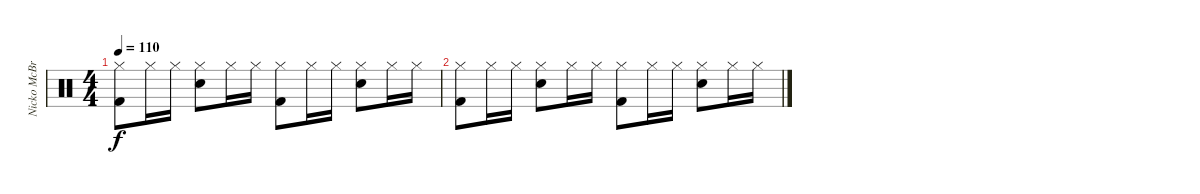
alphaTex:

\track ("Nicko McBrain" "Nicko McBr") {instrument percussion}
\staff {score}
\articulation defaults
\ts (4 4)
\tempo 110
\clef neutral
\ks c
("Hi-Hat (closed)" "Kick (hit) 2").8{dy f} "Hi-Hat (closed)".16 "Hi-Hat (closed)".16 ("Hi-Hat (closed)" "Snare (hit) 2").8 "Hi-Hat (closed)".16 "Hi-Hat (closed)".16 ("Hi-Hat (closed)" "Kick (hit) 2").8 "Hi-Hat (closed)".16 "Hi-Hat (closed)".16 ("Hi-Hat (closed)" "Snare (hit) 2").8 "Hi-Hat (closed)".16 "Hi-Hat (closed)".16 |
("Hi-Hat (closed)" "Kick (hit) 2").8 "Hi-Hat (closed)".16 "Hi-Hat (closed)".16 ("Hi-Hat (closed)" "Snare (hit) 2").8 "Hi-Hat (closed)".16 "Hi-Hat (closed)".16 ("Hi-Hat (closed)" "Kick (hit) 2").8 "Hi-Hat (closed)".16 "Hi-Hat (closed)".16 ("Hi-Hat (closed)" "Snare (hit) 2").8 "Hi-Hat (closed)".16 "Hi-Hat (closed)".16
